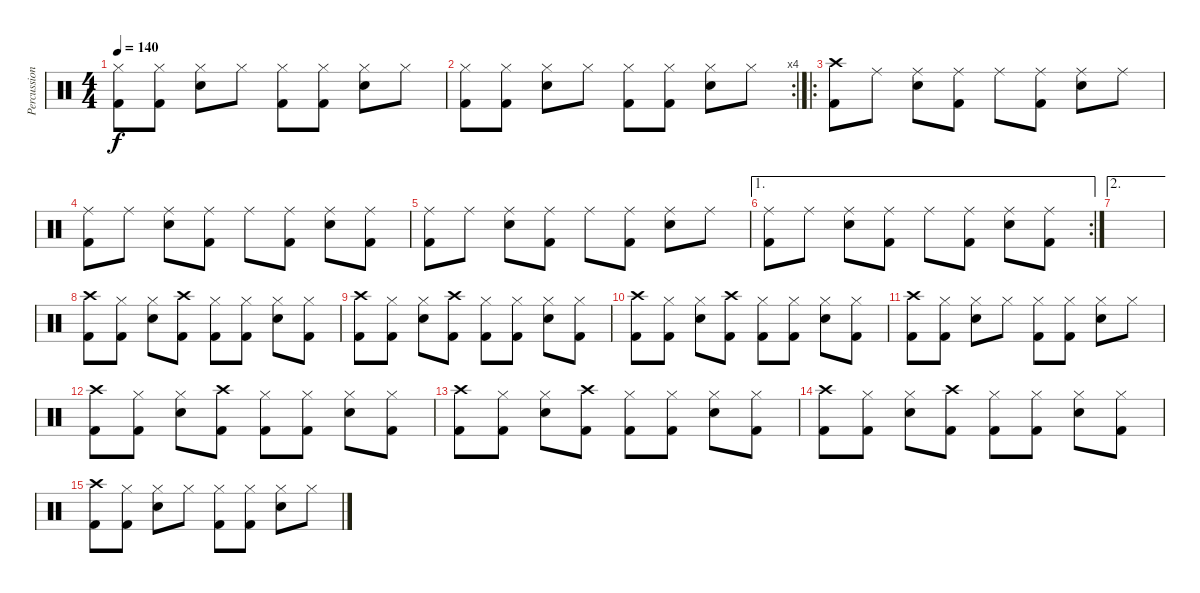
\track ("Percussions" "Percussion") {instrument percussion}
\staff {score}
\articulation defaults
\ts (4 4)
\tempo 140
\clef neutral
\ks c
("Hi-Hat (closed)" "Kick (hit) 2").8{dy f} ("Hi-Hat (closed)" "Kick (hit) 2").8 ("Hi-Hat (closed)" "Snare (hit) 2").8 "Hi-Hat (closed)".8 ("Hi-Hat (closed)" "Kick (hit) 2").8 ("Hi-Hat (closed)" "Kick (hit) 2").8 ("Hi-Hat (closed)" "Snare (hit) 2").8 "Hi-Hat (closed)".8 |
\rc 4
("Hi-Hat (closed)" "Kick (hit) 2").8 ("Hi-Hat (closed)" "Kick (hit) 2").8 ("Hi-Hat (closed)" "Snare (hit) 2").8 "Hi-Hat (closed)".8 ("Hi-Hat (closed)" "Kick (hit) 2").8 ("Hi-Hat (closed)" "Kick (hit) 2").8 ("Hi-Hat (closed)" "Snare (hit) 2").8 "Hi-Hat (closed)".8 |
\ro
("Crash high (hit)" "Kick (hit) 2").8 "Ride (middle)".8 ("Ride (middle)" "Snare (hit) 2").8 ("Ride (middle)" "Kick (hit) 2").8 "Ride (middle)".8 ("Ride (middle)" "Kick (hit) 2").8 ("Ride (middle)" "Snare (hit) 2").8 "Ride (middle)".8 |
("Ride (middle)" "Kick (hit) 2").8 "Ride (middle)".8 ("Ride (middle)" "Snare (hit) 2").8 ("Ride (middle)" "Kick (hit) 2").8 "Ride (middle)".8 ("Ride (middle)" "Kick (hit) 2").8 ("Ride (middle)" "Snare (hit) 2").8 ("Ride (middle)" "Kick (hit) 2").8 |
("Ride (middle)" "Kick (hit) 2").8 "Ride (middle)".8 ("Ride (middle)" "Snare (hit) 2").8 ("Ride (middle)" "Kick (hit) 2").8 "Ride (middle)".8 ("Ride (middle)" "Kick (hit) 2").8 ("Ride (middle)" "Snare (hit) 2").8 "Ride (middle)".8 |
\ae 1
\rc 2
("Ride (middle)" "Kick (hit) 2").8 "Ride (middle)".8 ("Ride (middle)" "Snare (hit) 2").8 ("Ride (middle)" "Kick (hit) 2").8 "Ride (middle)".8 ("Ride (middle)" "Kick (hit) 2").8 ("Ride (middle)" "Snare (hit) 2").8 ("Ride (middle)" "Kick (hit) 2").8 |
\ae 2
|
("Crash high (hit)" "Kick (hit) 2").8 ("Hi-Hat (closed)" "Kick (hit) 2").8 ("Hi-Hat (closed)" "Electric Snare (hit)").8 ("Crash high (hit)" "Kick (hit) 2").8 ("Hi-Hat (closed)" "Kick (hit) 2").8 ("Hi-Hat (closed)" "Kick (hit) 2").8 ("Hi-Hat (closed)" "Electric Snare (hit)").8 ("Hi-Hat (closed)" "Kick (hit) 2").8 |
("Crash high (hit)" "Kick (hit) 2").8 ("Hi-Hat (closed)" "Kick (hit) 2").8 ("Hi-Hat (closed)" "Electric Snare (hit)").8 ("Crash high (hit)" "Kick (hit) 2").8 ("Hi-Hat (closed)" "Kick (hit) 2").8 ("Hi-Hat (closed)" "Kick (hit) 2").8 ("Hi-Hat (closed)" "Electric Snare (hit)").8 ("Hi-Hat (closed)" "Kick (hit) 2").8 |
("Crash high (hit)" "Kick (hit) 2").8 ("Hi-Hat (closed)" "Kick (hit) 2").8 ("Hi-Hat (closed)" "Electric Snare (hit)").8 ("Crash high (hit)" "Kick (hit) 2").8 ("Hi-Hat (closed)" "Kick (hit) 2").8 ("Hi-Hat (closed)" "Kick (hit) 2").8 ("Hi-Hat (closed)" "Electric Snare (hit)").8 ("Hi-Hat (closed)" "Kick (hit) 2").8 |
("Crash high (hit)" "Kick (hit) 2").8 ("Hi-Hat (closed)" "Kick (hit) 2").8 ("Hi-Hat (closed)" "Electric Snare (hit)").8 "Hi-Hat (closed)".8 ("Hi-Hat (closed)" "Kick (hit) 2").8 ("Hi-Hat (closed)" "Kick (hit) 2").8 ("Hi-Hat (closed)" "Electric Snare (hit)").8 "Hi-Hat (closed)".8 |
("Crash high (hit)" "Kick (hit) 2").8 ("Hi-Hat (closed)" "Kick (hit) 2").8 ("Hi-Hat (closed)" "Electric Snare (hit)").8 ("Crash high (hit)" "Kick (hit) 2").8 ("Hi-Hat (closed)" "Kick (hit) 2").8 ("Hi-Hat (closed)" "Kick (hit) 2").8 ("Hi-Hat (closed)" "Electric Snare (hit)").8 ("Hi-Hat (closed)" "Kick (hit) 2").8 |
("Crash high (hit)" "Kick (hit) 2").8 ("Hi-Hat (closed)" "Kick (hit) 2").8 ("Hi-Hat (closed)" "Electric Snare (hit)").8 ("Crash high (hit)" "Kick (hit) 2").8 ("Hi-Hat (closed)" "Kick (hit) 2").8 ("Hi-Hat (closed)" "Kick (hit) 2").8 ("Hi-Hat (closed)" "Electric Snare (hit)").8 ("Hi-Hat (closed)" "Kick (hit) 2").8 |
("Crash high (hit)" "Kick (hit) 2").8 ("Hi-Hat (closed)" "Kick (hit) 2").8 ("Hi-Hat (closed)" "Electric Snare (hit)").8 ("Crash high (hit)" "Kick (hit) 2").8 ("Hi-Hat (closed)" "Kick (hit) 2").8 ("Hi-Hat (closed)" "Kick (hit) 2").8 ("Hi-Hat (closed)" "Electric Snare (hit)").8 ("Hi-Hat (closed)" "Kick (hit) 2").8 |
("Crash high (hit)" "Kick (hit) 2").8 ("Hi-Hat (closed)" "Kick (hit) 2").8 ("Hi-Hat (closed)" "Electric Snare (hit)").8 "Hi-Hat (closed)".8 ("Hi-Hat (closed)" "Kick (hit) 2").8 ("Hi-Hat (closed)" "Kick (hit) 2").8 ("Hi-Hat (closed)" "Electric Snare (hit)").8 "Hi-Hat (closed)".8
